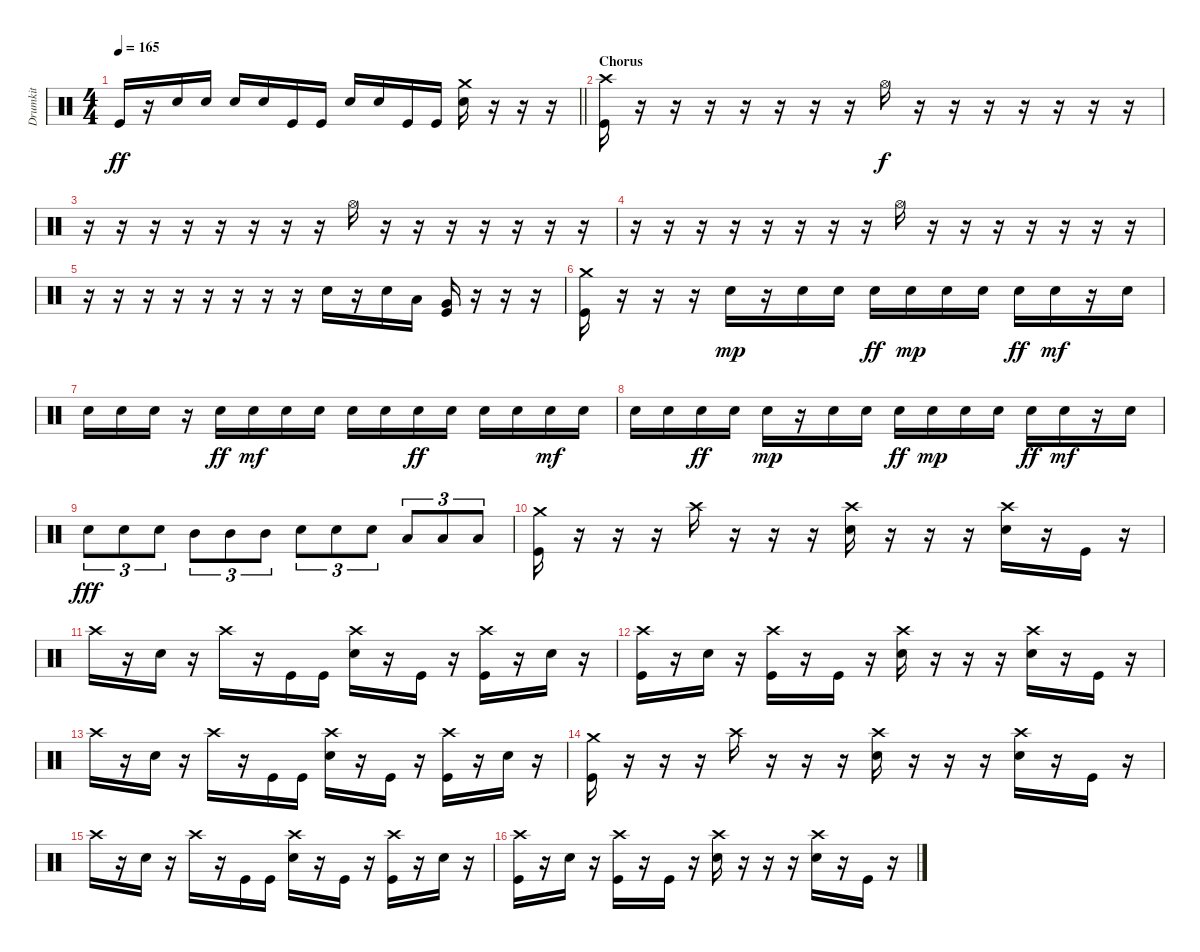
\track ("Drumkit" "Drumkit") {instrument percussion}
\staff {score}
\articulation defaults
\ts (4 4)
\tempo 165
\clef neutral
\barLineRight lightlight
\ks c "Kick (hit)".16{dy ff}
r.16 "Snare (hit) 2".16 "Snare (hit) 2".16 "Snare (hit) 2".16 "Snare (hit) 2".16 "Kick (hit)".16 "Kick (hit)".16 "Snare (hit) 2".16 "Snare (hit) 2".16 "Kick (hit)".16 "Kick (hit)".16 ("Crash medium (hit)" "Snare (hit) 2").16 r.16 r.16 r.16 |
\section ("" "Chorus")
("Crash high (hit)" "Kick (hit)").16 r.16 r.16 r.16 r.16 r.16 r.16 r.16 "Hi-Hat (open)".16{dy f} r.16 r.16 r.16 r.16 r.16 r.16 r.16 |
r.16 r.16 r.16 r.16 r.16 r.16 r.16 r.16 "Hi-Hat (open)".16 r.16 r.16 r.16 r.16 r.16 r.16 r.16 |
r.16 r.16 r.16 r.16 r.16 r.16 r.16 r.16 "Hi-Hat (open)".16 r.16 r.16 r.16 r.16 r.16 r.16 r.16 |
r.16 r.16 r.16 r.16 r.16 r.16 r.16 r.16 "Snare (hit) 2".16 r.16 "Snare (hit) 2".16 "Low Tom (hit)".16 ("Very Low Tom (hit)" "Kick (hit)").16 r.16 r.16 r.16 |
("Kick (hit)" "Crash medium (hit)").16 r.16 r.16 r.16 "Snare (hit) 2".16{dy mp} r.16 "Snare (hit) 2".16 "Snare (hit) 2".16 "Snare (hit) 2".16{dy ff} "Snare (hit) 2".16{dy mp} "Snare (hit) 2".16 "Snare (hit) 2".16 "Snare (hit) 2".16{dy ff} "Snare (hit) 2".16{dy mf} r.16 "Snare (hit) 2".16 |
"Snare (hit) 2".16 "Snare (hit) 2".16 "Snare (hit) 2".16 r.16 "Snare (hit) 2".16{dy ff} "Snare (hit) 2".16{dy mf} "Snare (hit) 2".16 "Snare (hit) 2".16 "Snare (hit) 2".16 "Snare (hit) 2".16 "Snare (hit) 2".16{dy ff} "Snare (hit) 2".16 "Snare (hit) 2".16 "Snare (hit) 2".16 "Snare (hit) 2".16{dy mf} "Snare (hit) 2".16 |
"Snare (hit) 2".16 "Snare (hit) 2".16 "Snare (hit) 2".16{dy ff} "Snare (hit) 2".16 "Snare (hit) 2".16{dy mp} r.16 "Snare (hit) 2".16 "Snare (hit) 2".16 "Snare (hit) 2".16{dy ff} "Snare (hit) 2".16{dy mp} "Snare (hit) 2".16 "Snare (hit) 2".16 "Snare (hit) 2".16{dy ff} "Snare (hit) 2".16{dy mf} r.16 "Snare (hit) 2".16 |
"Snare (hit) 2".8{tu (3 2) dy fff} "Snare (hit) 2".8{tu (3 2)} "Snare (hit) 2".8{tu (3 2)} "Mid Tom (hit)".8{tu (3 2)} "Mid Tom (hit)".8{tu (3 2)} "Mid Tom (hit)".8{tu (3 2)} "Snare (hit) 2".8{tu (3 2)} "Snare (hit) 2".8{tu (3 2)} "Snare (hit) 2".8{tu (3 2)} "Low Floor Tom (hit)".8{tu (3 2)} "Low Floor Tom (hit)".8{tu (3 2)} "Low Floor Tom (hit)".8{tu (3 2)} |
("Crash medium (hit)" "Kick (hit)").16 r.16 r.16 r.16 "Crash high (hit)".16 r.16 r.16 r.16 ("Crash high (hit)" "Snare (hit) 2").16 r.16 r.16 r.16 ("Crash high (hit)" "Snare (hit) 2").16 r.16 "Kick (hit)".16 r.16 |
"Crash high (hit)".16 r.16 "Snare (hit) 2".16 r.16 "Crash high (hit)".16 r.16 "Kick (hit)".16 "Kick (hit)".16 ("Crash high (hit)" "Snare (hit) 2").16 r.16 "Kick (hit)".16 r.16 ("Crash high (hit)" "Kick (hit)").16 r.16 "Snare (hit) 2".16 r.16 |
("Crash high (hit)" "Kick (hit)").16 r.16 "Snare (hit) 2".16 r.16 ("Crash high (hit)" "Kick (hit)").16 r.16 "Kick (hit)".16 r.16 ("Crash high (hit)" "Snare (hit) 2").16 r.16 r.16 r.16 ("Crash high (hit)" "Snare (hit) 2").16 r.16 "Kick (hit)".16 r.16 |
"Crash high (hit)".16 r.16 "Snare (hit) 2".16 r.16 "Crash high (hit)".16 r.16 "Kick (hit)".16 "Kick (hit)".16 ("Crash high (hit)" "Snare (hit) 2").16 r.16 "Kick (hit)".16 r.16 ("Crash high (hit)" "Kick (hit)").16 r.16 "Snare (hit) 2".16 r.16 |
("Crash medium (hit)" "Kick (hit)").16 r.16 r.16 r.16 "Crash high (hit)".16 r.16 r.16 r.16 ("Crash high (hit)" "Snare (hit) 2").16 r.16 r.16 r.16 ("Crash high (hit)" "Snare (hit) 2").16 r.16 "Kick (hit)".16 r.16 |
"Crash high (hit)".16 r.16 "Snare (hit) 2".16 r.16 "Crash high (hit)".16 r.16 "Kick (hit)".16 "Kick (hit)".16 ("Crash high (hit)" "Snare (hit) 2").16 r.16 "Kick (hit)".16 r.16 ("Crash high (hit)" "Kick (hit)").16 r.16 "Snare (hit) 2".16 r.16 |
("Crash high (hit)" "Kick (hit)").16 r.16 "Snare (hit) 2".16 r.16 ("Crash high (hit)" "Kick (hit)").16 r.16 "Kick (hit)".16 r.16 ("Crash high (hit)" "Snare (hit) 2").16 r.16 r.16 r.16 ("Crash high (hit)" "Snare (hit) 2").16 r.16 "Kick (hit)".16 r.16
